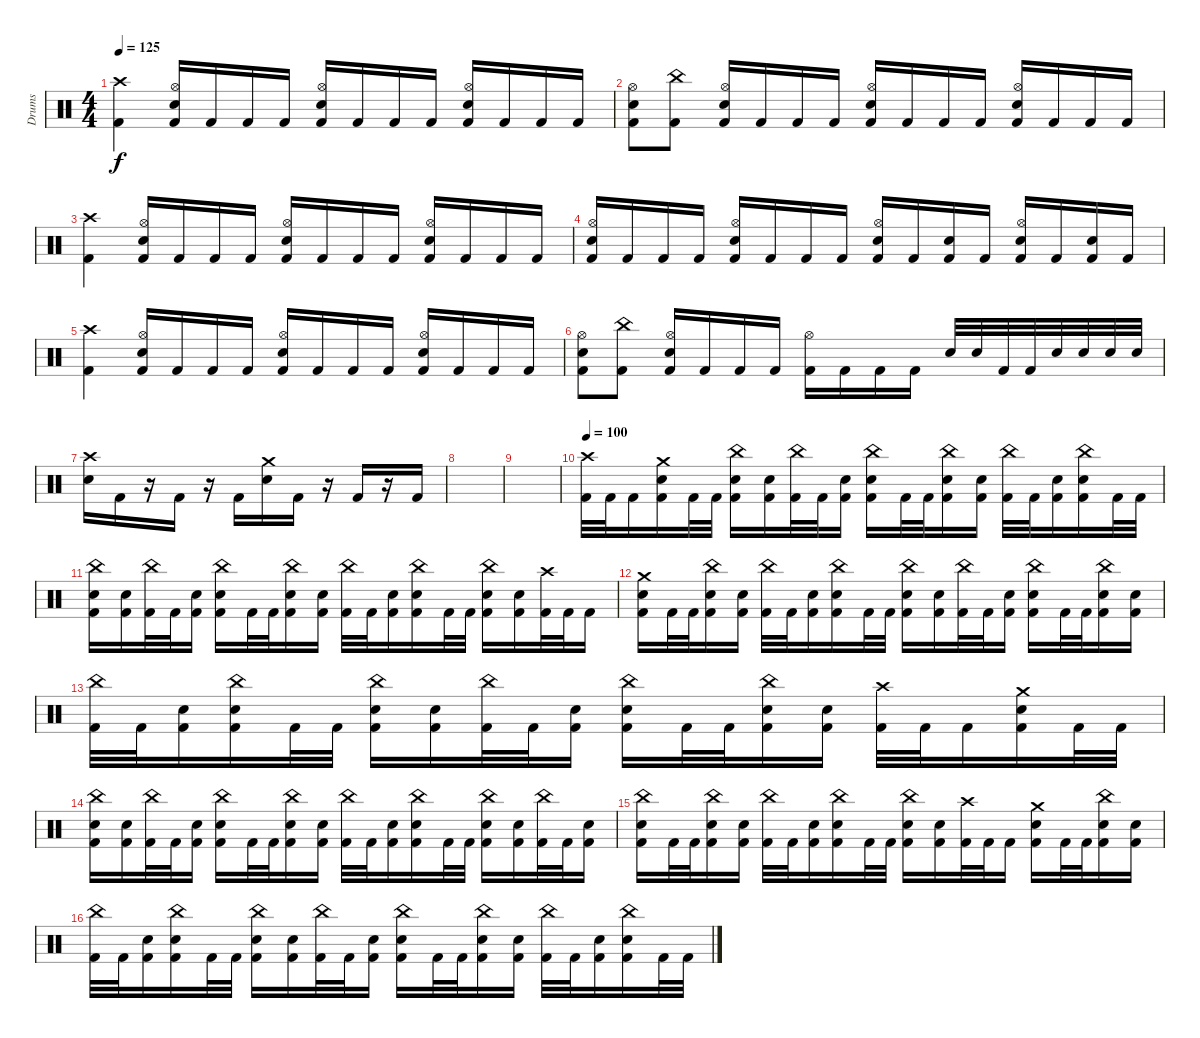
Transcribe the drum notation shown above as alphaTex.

\track ("Drums" "Drums") {instrument percussion}
\staff
\articulation defaults
\ts (4 4)
\section ("" "")
\tempo 125
\clef neutral
\ks c
("Crash high (hit)" "Kick (hit) 2").4{dy f} ("Hi-Hat (open)" "Electric Snare (hit)" "Kick (hit) 2").16 "Kick (hit) 2".16 "Kick (hit) 2".16 "Kick (hit) 2".16 ("Hi-Hat (open)" "Electric Snare (hit)" "Kick (hit) 2").16 "Kick (hit) 2".16 "Kick (hit) 2".16 "Kick (hit) 2".16 ("Hi-Hat (open)" "Electric Snare (hit)" "Kick (hit) 2").16 "Kick (hit) 2".16 "Kick (hit) 2".16 "Kick (hit) 2".16 |
("Hi-Hat (open)" "Electric Snare (hit)" "Kick (hit) 2").8 ("China (hit)" "Kick (hit) 2").8 ("Hi-Hat (open)" "Electric Snare (hit)" "Kick (hit) 2").16 "Kick (hit) 2".16 "Kick (hit) 2".16 "Kick (hit) 2".16 ("Hi-Hat (open)" "Electric Snare (hit)" "Kick (hit) 2").16 "Kick (hit) 2".16 "Kick (hit) 2".16 "Kick (hit) 2".16 ("Hi-Hat (open)" "Electric Snare (hit)" "Kick (hit) 2").16 "Kick (hit) 2".16 "Kick (hit) 2".16 "Kick (hit) 2".16 |
("Crash high (hit)" "Kick (hit) 2").4 ("Hi-Hat (open)" "Electric Snare (hit)" "Kick (hit) 2").16 "Kick (hit) 2".16 "Kick (hit) 2".16 "Kick (hit) 2".16 ("Hi-Hat (open)" "Electric Snare (hit)" "Kick (hit) 2").16 "Kick (hit) 2".16 "Kick (hit) 2".16 "Kick (hit) 2".16 ("Hi-Hat (open)" "Electric Snare (hit)" "Kick (hit) 2").16 "Kick (hit) 2".16 "Kick (hit) 2".16 "Kick (hit) 2".16 |
("Hi-Hat (open)" "Electric Snare (hit)" "Kick (hit) 2").16 "Kick (hit) 2".16 "Kick (hit) 2".16 "Kick (hit) 2".16 ("Hi-Hat (open)" "Electric Snare (hit)" "Kick (hit) 2").16 "Kick (hit) 2".16 "Kick (hit) 2".16 "Kick (hit) 2".16 ("Hi-Hat (open)" "Electric Snare (hit)" "Kick (hit) 2").16 "Kick (hit) 2".16 ("Electric Snare (hit)" "Kick (hit) 2").16 "Kick (hit) 2".16 ("Hi-Hat (open)" "Electric Snare (hit)" "Kick (hit) 2").16 "Kick (hit) 2".16 ("Electric Snare (hit)" "Kick (hit) 2").16 "Kick (hit) 2".16 |
("Crash high (hit)" "Kick (hit) 2").4 ("Hi-Hat (open)" "Electric Snare (hit)" "Kick (hit) 2").16 "Kick (hit) 2".16 "Kick (hit) 2".16 "Kick (hit) 2".16 ("Hi-Hat (open)" "Electric Snare (hit)" "Kick (hit) 2").16 "Kick (hit) 2".16 "Kick (hit) 2".16 "Kick (hit) 2".16 ("Hi-Hat (open)" "Electric Snare (hit)" "Kick (hit) 2").16 "Kick (hit) 2".16 "Kick (hit) 2".16 "Kick (hit) 2".16 |
("Hi-Hat (open)" "Electric Snare (hit)" "Kick (hit) 2").8 ("China (hit)" "Kick (hit) 2").8 ("Hi-Hat (open)" "Electric Snare (hit)" "Kick (hit) 2").16 "Kick (hit) 2".16 "Kick (hit) 2".16 "Kick (hit) 2".16 ("Hi-Hat (open)" "Kick (hit) 2").16 "Kick (hit) 2".16 "Kick (hit) 2".16 "Kick (hit) 2".16 "Electric Snare (hit)".32 "Electric Snare (hit)".32 "Kick (hit) 2".32 "Kick (hit) 2".32 "Electric Snare (hit)".32 "Electric Snare (hit)".32 "Electric Snare (hit)".32 "Electric Snare (hit)".32 |
("Crash high (hit)" "Electric Snare (hit)").16 "Kick (hit) 2".16 r.16 "Kick (hit) 2".16 r.16 "Kick (hit) 2".16 ("Crash medium (hit)" "Electric Snare (hit)").16 "Kick (hit) 2".16 r.16 "Kick (hit) 2".16 r.16 "Kick (hit) 2".16 |
|
|
\tempo 100
("Crash high (hit)" "Kick (hit) 2").32 "Kick (hit) 2".32 "Kick (hit) 2".16 ("Crash medium (hit)" "Electric Snare (hit)" "Kick (hit) 2").16 "Kick (hit) 2".32 "Kick (hit) 2".32 ("China (hit)" "Electric Snare (hit)" "Kick (hit) 2").16 ("Electric Snare (hit)" "Kick (hit) 2").16 ("China (hit)" "Kick (hit) 2").32 "Kick (hit) 2".32 ("Electric Snare (hit)" "Kick (hit) 2").16 ("China (hit)" "Electric Snare (hit)" "Kick (hit) 2").16 "Kick (hit) 2".32 "Kick (hit) 2".32 ("China (hit)" "Electric Snare (hit)" "Kick (hit) 2").16 ("Electric Snare (hit)" "Kick (hit) 2").16 ("China (hit)" "Kick (hit) 2").32 "Kick (hit) 2".32 ("Electric Snare (hit)" "Kick (hit) 2").16 ("China (hit)" "Electric Snare (hit)" "Kick (hit) 2").16 "Kick (hit) 2".32 "Kick (hit) 2".32 |
("China (hit)" "Electric Snare (hit)" "Kick (hit) 2").16 ("Electric Snare (hit)" "Kick (hit) 2").16 ("China (hit)" "Kick (hit) 2").32 "Kick (hit) 2".32 ("Electric Snare (hit)" "Kick (hit) 2").16 ("China (hit)" "Electric Snare (hit)" "Kick (hit) 2").16 "Kick (hit) 2".32 "Kick (hit) 2".32 ("China (hit)" "Electric Snare (hit)" "Kick (hit) 2").16 ("Electric Snare (hit)" "Kick (hit) 2").16 ("China (hit)" "Kick (hit) 2").32 "Kick (hit) 2".32 ("Electric Snare (hit)" "Kick (hit) 2").16 ("China (hit)" "Electric Snare (hit)" "Kick (hit) 2").16 "Kick (hit) 2".32 "Kick (hit) 2".32 ("China (hit)" "Electric Snare (hit)" "Kick (hit) 2").16 ("Electric Snare (hit)" "Kick (hit) 2").16 ("Crash high (hit)" "Kick (hit) 2").32 "Kick (hit) 2".32 "Kick (hit) 2".16 |
("Crash medium (hit)" "Electric Snare (hit)" "Kick (hit) 2").16 "Kick (hit) 2".32 "Kick (hit) 2".32 ("China (hit)" "Electric Snare (hit)" "Kick (hit) 2").16 ("Electric Snare (hit)" "Kick (hit) 2").16 ("China (hit)" "Kick (hit) 2").32 "Kick (hit) 2".32 ("Electric Snare (hit)" "Kick (hit) 2").16 ("China (hit)" "Electric Snare (hit)" "Kick (hit) 2").16 "Kick (hit) 2".32 "Kick (hit) 2".32 ("China (hit)" "Electric Snare (hit)" "Kick (hit) 2").16 ("Electric Snare (hit)" "Kick (hit) 2").16 ("China (hit)" "Kick (hit) 2").32 "Kick (hit) 2".32 ("Electric Snare (hit)" "Kick (hit) 2").16 ("China (hit)" "Electric Snare (hit)" "Kick (hit) 2").16 "Kick (hit) 2".32 "Kick (hit) 2".32 ("China (hit)" "Electric Snare (hit)" "Kick (hit) 2").16 ("Electric Snare (hit)" "Kick (hit) 2").16 |
("China (hit)" "Kick (hit) 2").32 "Kick (hit) 2".32 ("Electric Snare (hit)" "Kick (hit) 2").16 ("China (hit)" "Electric Snare (hit)" "Kick (hit) 2").16 "Kick (hit) 2".32 "Kick (hit) 2".32 ("China (hit)" "Electric Snare (hit)" "Kick (hit) 2").16 ("Electric Snare (hit)" "Kick (hit) 2").16 ("China (hit)" "Kick (hit) 2").32 "Kick (hit) 2".32 ("Electric Snare (hit)" "Kick (hit) 2").16 ("China (hit)" "Electric Snare (hit)" "Kick (hit) 2").16 "Kick (hit) 2".32 "Kick (hit) 2".32 ("China (hit)" "Electric Snare (hit)" "Kick (hit) 2").16 ("Electric Snare (hit)" "Kick (hit) 2").16 ("Crash high (hit)" "Kick (hit) 2").32 "Kick (hit) 2".32 "Kick (hit) 2".16 ("Crash medium (hit)" "Electric Snare (hit)" "Kick (hit) 2").16 "Kick (hit) 2".32 "Kick (hit) 2".32 |
("China (hit)" "Electric Snare (hit)" "Kick (hit) 2").16 ("Electric Snare (hit)" "Kick (hit) 2").16 ("China (hit)" "Kick (hit) 2").32 "Kick (hit) 2".32 ("Electric Snare (hit)" "Kick (hit) 2").16 ("China (hit)" "Electric Snare (hit)" "Kick (hit) 2").16 "Kick (hit) 2".32 "Kick (hit) 2".32 ("China (hit)" "Electric Snare (hit)" "Kick (hit) 2").16 ("Electric Snare (hit)" "Kick (hit) 2").16 ("China (hit)" "Kick (hit) 2").32 "Kick (hit) 2".32 ("Electric Snare (hit)" "Kick (hit) 2").16 ("China (hit)" "Electric Snare (hit)" "Kick (hit) 2").16 "Kick (hit) 2".32 "Kick (hit) 2".32 ("China (hit)" "Electric Snare (hit)" "Kick (hit) 2").16 ("Electric Snare (hit)" "Kick (hit) 2").16 ("China (hit)" "Kick (hit) 2").32 "Kick (hit) 2".32 ("Electric Snare (hit)" "Kick (hit) 2").16 |
("China (hit)" "Electric Snare (hit)" "Kick (hit) 2").16 "Kick (hit) 2".32 "Kick (hit) 2".32 ("China (hit)" "Electric Snare (hit)" "Kick (hit) 2").16 ("Electric Snare (hit)" "Kick (hit) 2").16 ("China (hit)" "Kick (hit) 2").32 "Kick (hit) 2".32 ("Electric Snare (hit)" "Kick (hit) 2").16 ("China (hit)" "Electric Snare (hit)" "Kick (hit) 2").16 "Kick (hit) 2".32 "Kick (hit) 2".32 ("China (hit)" "Electric Snare (hit)" "Kick (hit) 2").16 ("Electric Snare (hit)" "Kick (hit) 2").16 ("Crash high (hit)" "Kick (hit) 2").32 "Kick (hit) 2".32 "Kick (hit) 2".16 ("Crash medium (hit)" "Electric Snare (hit)" "Kick (hit) 2").16 "Kick (hit) 2".32 "Kick (hit) 2".32 ("China (hit)" "Electric Snare (hit)" "Kick (hit) 2").16 ("Electric Snare (hit)" "Kick (hit) 2").16 |
("China (hit)" "Kick (hit) 2").32 "Kick (hit) 2".32 ("Electric Snare (hit)" "Kick (hit) 2").16 ("China (hit)" "Electric Snare (hit)" "Kick (hit) 2").16 "Kick (hit) 2".32 "Kick (hit) 2".32 ("China (hit)" "Electric Snare (hit)" "Kick (hit) 2").16 ("Electric Snare (hit)" "Kick (hit) 2").16 ("China (hit)" "Kick (hit) 2").32 "Kick (hit) 2".32 ("Electric Snare (hit)" "Kick (hit) 2").16 ("China (hit)" "Electric Snare (hit)" "Kick (hit) 2").16 "Kick (hit) 2".32 "Kick (hit) 2".32 ("China (hit)" "Electric Snare (hit)" "Kick (hit) 2").16 ("Electric Snare (hit)" "Kick (hit) 2").16 ("China (hit)" "Kick (hit) 2").32 "Kick (hit) 2".32 ("Electric Snare (hit)" "Kick (hit) 2").16 ("China (hit)" "Electric Snare (hit)" "Kick (hit) 2").16 "Kick (hit) 2".32 "Kick (hit) 2".32
